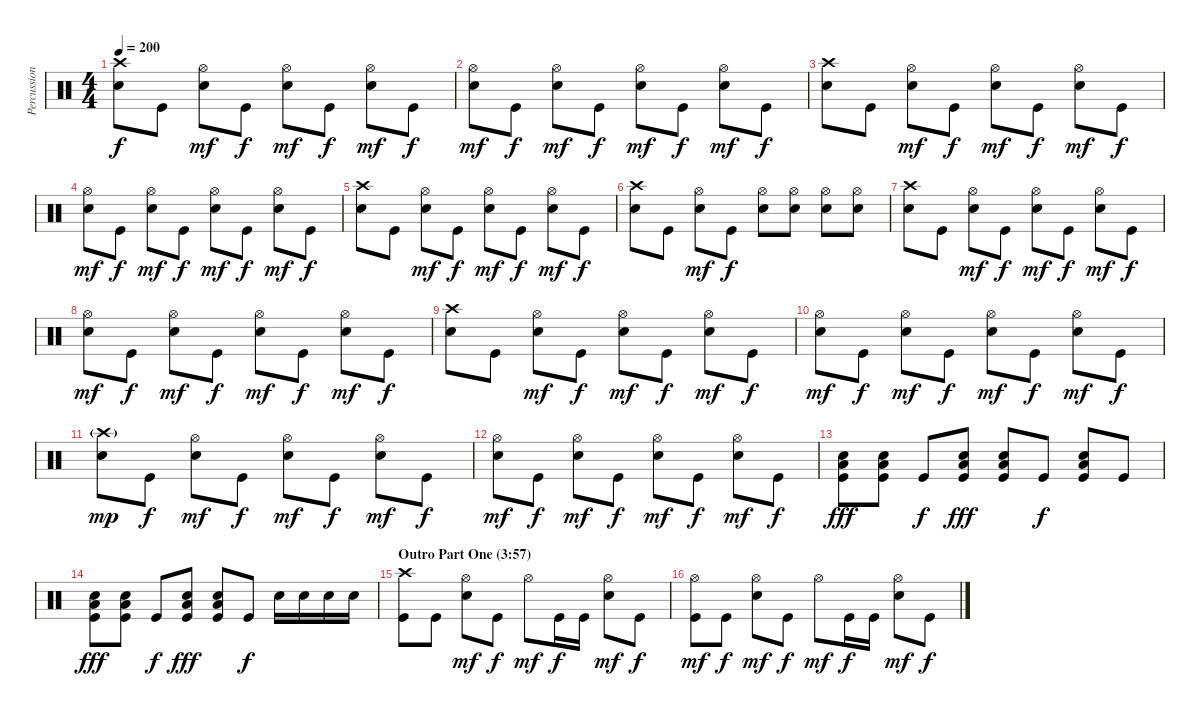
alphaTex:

\track ("Percussion" "Percussion") {instrument percussion}
\staff {score}
\articulation defaults
\ts (4 4)
\tempo 200
\clef neutral
\ks c
("Crash high (hit)" "Snare (hit) 2").8{dy f} "Kick (hit)".8 ("Hi-Hat (open)" "Snare (hit) 2").8{dy mf} "Kick (hit)".8{dy f} ("Hi-Hat (open)" "Snare (hit) 2").8{dy mf} "Kick (hit)".8{dy f} ("Hi-Hat (open)" "Snare (hit) 2").8{dy mf} "Kick (hit)".8{dy f} |
("Hi-Hat (open)" "Snare (hit) 2").8{dy mf} "Kick (hit)".8{dy f} ("Hi-Hat (open)" "Snare (hit) 2").8{dy mf} "Kick (hit)".8{dy f} ("Hi-Hat (open)" "Snare (hit) 2").8{dy mf} "Kick (hit)".8{dy f} ("Hi-Hat (open)" "Snare (hit) 2").8{dy mf} "Kick (hit)".8{dy f} |
("Crash high (hit)" "Snare (hit) 2").8 "Kick (hit)".8 ("Hi-Hat (open)" "Snare (hit) 2").8{dy mf} "Kick (hit)".8{dy f} ("Hi-Hat (open)" "Snare (hit) 2").8{dy mf} "Kick (hit)".8{dy f} ("Hi-Hat (open)" "Snare (hit) 2").8{dy mf} "Kick (hit)".8{dy f} |
("Hi-Hat (open)" "Snare (hit) 2").8{dy mf} "Kick (hit)".8{dy f} ("Hi-Hat (open)" "Snare (hit) 2").8{dy mf} "Kick (hit)".8{dy f} ("Hi-Hat (open)" "Snare (hit) 2").8{dy mf} "Kick (hit)".8{dy f} ("Hi-Hat (open)" "Snare (hit) 2").8{dy mf} "Kick (hit)".8{dy f} |
("Crash high (hit)" "Snare (hit) 2").8 "Kick (hit)".8 ("Hi-Hat (open)" "Snare (hit) 2").8{dy mf} "Kick (hit)".8{dy f} ("Hi-Hat (open)" "Snare (hit) 2").8{dy mf} "Kick (hit)".8{dy f} ("Hi-Hat (open)" "Snare (hit) 2").8{dy mf} "Kick (hit)".8{dy f} |
("Crash high (hit)" "Snare (hit) 2").8 "Kick (hit)".8 ("Hi-Hat (open)" "Snare (hit) 2").8{dy mf} "Kick (hit)".8{dy f} ("Hi-Hat (open)" "Snare (hit) 2").8 ("Hi-Hat (open)" "Snare (hit) 2").8 ("Hi-Hat (open)" "Snare (hit) 2").8 ("Hi-Hat (open)" "Snare (hit) 2").8 |
("Crash high (hit)" "Snare (hit) 2").8 "Kick (hit)".8 ("Hi-Hat (open)" "Snare (hit) 2").8{dy mf} "Kick (hit)".8{dy f} ("Hi-Hat (open)" "Snare (hit) 2").8{dy mf} "Kick (hit)".8{dy f} ("Hi-Hat (open)" "Snare (hit) 2").8{dy mf} "Kick (hit)".8{dy f} |
("Hi-Hat (open)" "Snare (hit) 2").8{dy mf} "Kick (hit)".8{dy f} ("Hi-Hat (open)" "Snare (hit) 2").8{dy mf} "Kick (hit)".8{dy f} ("Hi-Hat (open)" "Snare (hit) 2").8{dy mf} "Kick (hit)".8{dy f} ("Hi-Hat (open)" "Snare (hit) 2").8{dy mf} "Kick (hit)".8{dy f} |
("Crash high (hit)" "Snare (hit) 2").8 "Kick (hit)".8 ("Hi-Hat (open)" "Snare (hit) 2").8{dy mf} "Kick (hit)".8{dy f} ("Hi-Hat (open)" "Snare (hit) 2").8{dy mf} "Kick (hit)".8{dy f} ("Hi-Hat (open)" "Snare (hit) 2").8{dy mf} "Kick (hit)".8{dy f} |
("Hi-Hat (open)" "Snare (hit) 2").8{dy mf} "Kick (hit)".8{dy f} ("Hi-Hat (open)" "Snare (hit) 2").8{dy mf} "Kick (hit)".8{dy f} ("Hi-Hat (open)" "Snare (hit) 2").8{dy mf} "Kick (hit)".8{dy f} ("Hi-Hat (open)" "Snare (hit) 2").8{dy mf} "Kick (hit)".8{dy f} |
("Crash high (hit)"{g} "Snare (hit) 2").8{dy mp} "Kick (hit)".8{dy f} ("Hi-Hat (open)" "Snare (hit) 2").8{dy mf} "Kick (hit)".8{dy f} ("Hi-Hat (open)" "Snare (hit) 2").8{dy mf} "Kick (hit)".8{dy f} ("Hi-Hat (open)" "Snare (hit) 2").8{dy mf} "Kick (hit)".8{dy f} |
("Hi-Hat (open)" "Snare (hit) 2").8{dy mf} "Kick (hit)".8{dy f} ("Hi-Hat (open)" "Snare (hit) 2").8{dy mf} "Kick (hit)".8{dy f} ("Hi-Hat (open)" "Snare (hit) 2").8{dy mf} "Kick (hit)".8{dy f} ("Hi-Hat (open)" "Snare (hit) 2").8{dy mf} "Kick (hit)".8{dy f} |
("Snare (hit) 2" "Low Floor Tom (hit)" "Kick (hit)").8{dy fff} ("Snare (hit) 2" "Low Floor Tom (hit)" "Kick (hit)").8 "Kick (hit)".8{dy f} ("Snare (hit) 2" "Low Floor Tom (hit)" "Kick (hit)").8{dy fff} ("Snare (hit) 2" "Low Floor Tom (hit)" "Kick (hit)").8 "Kick (hit)".8{dy f} ("Snare (hit) 2" "Low Floor Tom (hit)" "Kick (hit)").8 "Kick (hit)".8 |
("Snare (hit) 2" "Low Floor Tom (hit)" "Kick (hit)").8{dy fff} ("Snare (hit) 2" "Low Floor Tom (hit)" "Kick (hit)").8 "Kick (hit)".8{dy f} ("Snare (hit) 2" "Low Floor Tom (hit)" "Kick (hit)").8{dy fff} ("Snare (hit) 2" "Low Floor Tom (hit)" "Kick (hit)").8 "Kick (hit)".8{dy f} "Snare (hit) 2".16 "Snare (hit) 2".16 "Snare (hit) 2".16 "Snare (hit) 2".16 |
\section ("" "Outro Part One (3:57)")
("Crash high (hit)" "Kick (hit)").8 "Kick (hit)".8 ("Hi-Hat (open)" "Snare (hit) 2").8{dy mf} "Kick (hit)".8{dy f} "Hi-Hat (open)".8{dy mf} "Kick (hit)".16{dy f} "Kick (hit)".16 ("Hi-Hat (open)" "Snare (hit) 2").8{dy mf} "Kick (hit)".8{dy f} |
("Hi-Hat (open)" "Kick (hit)").8{dy mf} "Kick (hit)".8{dy f} ("Hi-Hat (open)" "Snare (hit) 2").8{dy mf} "Kick (hit)".8{dy f} "Hi-Hat (open)".8{dy mf} "Kick (hit)".16{dy f} "Kick (hit)".16 ("Hi-Hat (open)" "Snare (hit) 2").8{dy mf} "Kick (hit)".8{dy f}
